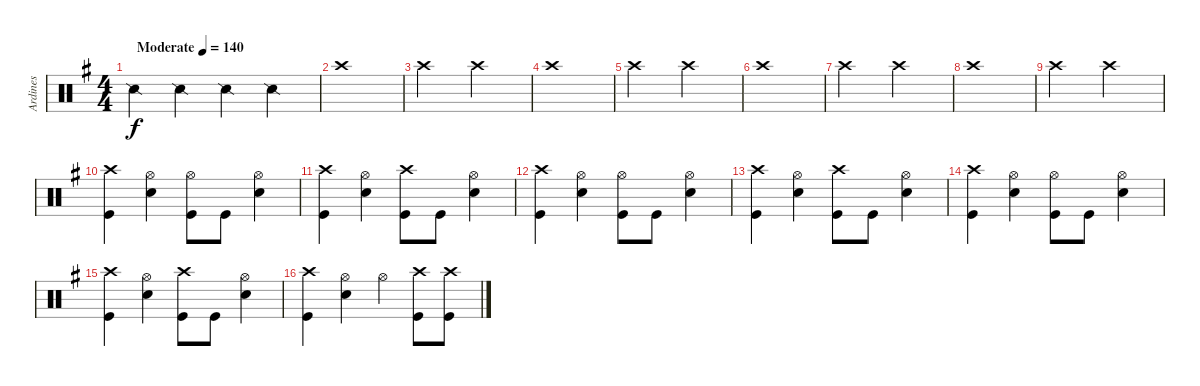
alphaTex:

\track ("Ardines" "Ardines") {instrument percussion}
\staff {score}
\articulation defaults
\ts (4 4)
\tempo (140 "Moderate")
\clef neutral
\ks g "Snare (side stick) 2".4{dy f} "Snare (side stick) 2".4 "Snare (side stick) 2".4 "Snare (side stick) 2".4
|
"Crash high (hit)".1 |
"Crash high (hit)".2 "Crash high (hit)".2 |
"Crash high (hit)".1 |
"Crash high (hit)".2 "Crash high (hit)".2 |
"Crash high (hit)".1 |
"Crash high (hit)".2 "Crash high (hit)".2 |
"Crash high (hit)".1 |
"Crash high (hit)".2 "Crash high (hit)".2 |
("Crash high (hit)" "Kick (hit)").4 ("Hi-Hat (open)" "Electric Snare (hit)").4 ("Hi-Hat (open)" "Kick (hit)").8 "Kick (hit)".8 ("Hi-Hat (open)" "Electric Snare (hit)").4 |
("Crash high (hit)" "Kick (hit)").4 ("Hi-Hat (open)" "Electric Snare (hit)").4 ("Crash high (hit)" "Kick (hit)").8 "Kick (hit)".8 ("Hi-Hat (open)" "Electric Snare (hit)").4 |
("Crash high (hit)" "Kick (hit)").4 ("Hi-Hat (open)" "Electric Snare (hit)").4 ("Hi-Hat (open)" "Kick (hit)").8 "Kick (hit)".8 ("Hi-Hat (open)" "Electric Snare (hit)").4 |
("Crash high (hit)" "Kick (hit)").4 ("Hi-Hat (open)" "Electric Snare (hit)").4 ("Crash high (hit)" "Kick (hit)").8 "Kick (hit)".8 ("Hi-Hat (open)" "Electric Snare (hit)").4 |
("Crash high (hit)" "Kick (hit)").4 ("Hi-Hat (open)" "Electric Snare (hit)").4 ("Hi-Hat (open)" "Kick (hit)").8 "Kick (hit)".8 ("Hi-Hat (open)" "Electric Snare (hit)").4 |
("Crash high (hit)" "Kick (hit)").4 ("Hi-Hat (open)" "Electric Snare (hit)").4 ("Crash high (hit)" "Kick (hit)").8 "Kick (hit)".8 ("Hi-Hat (open)" "Electric Snare (hit)").4 |
("Crash high (hit)" "Kick (hit)").4 ("Hi-Hat (open)" "Electric Snare (hit)").4 "Hi-Hat (open)".4 ("Crash high (hit)" "Kick (hit)").8 ("Crash high (hit)" "Kick (hit)").8
